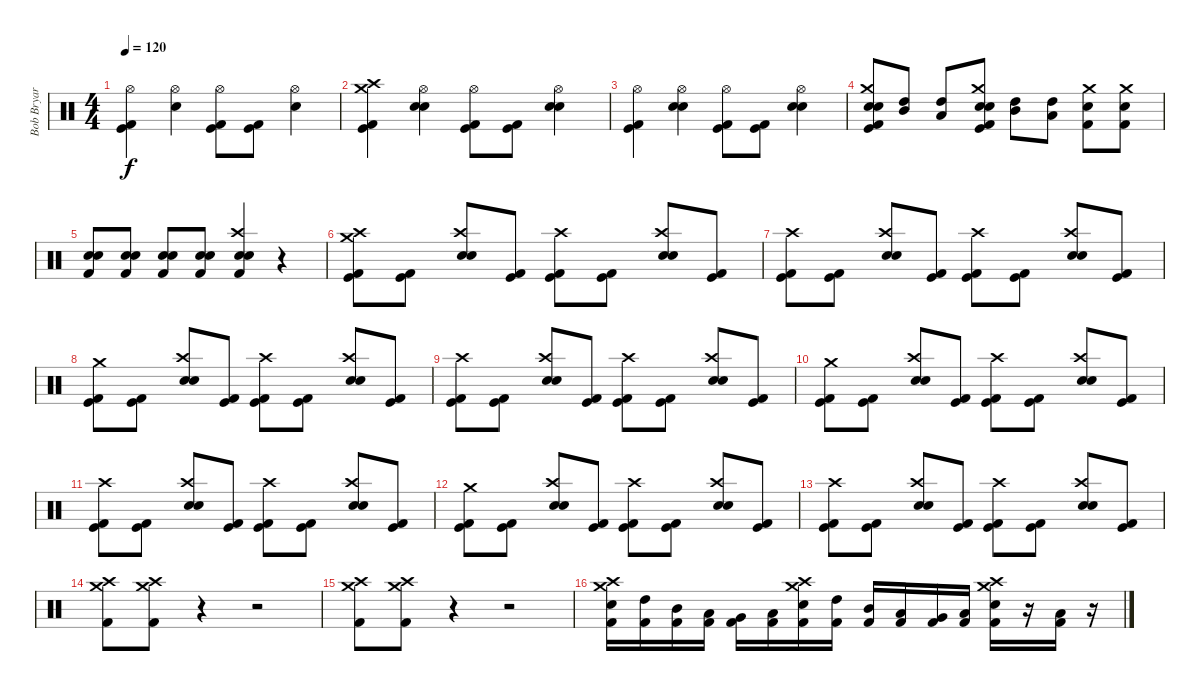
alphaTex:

\track ("Bob Bryar" "Bob Bryar") {instrument percussion}
\staff {score}
\articulation defaults
\ts (4 4)
\tempo 120
\clef neutral
\ks c
("Hi-Hat (open)" "Kick (hit)" "Kick (hit) 2").4{dy f} ("Hi-Hat (open)" "Snare (hit) 2").4 ("Hi-Hat (open)" "Kick (hit)" "Kick (hit) 2").8 ("Kick (hit)" "Kick (hit) 2").8 ("Hi-Hat (open)" "Snare (hit) 2").4 |
("Crash medium (hit)" "Crash high (hit)" "Kick (hit)" "Kick (hit) 2").4 ("Hi-Hat (open)" "Electric Snare (hit)" "Snare (hit) 2").4 ("Hi-Hat (open)" "Kick (hit)" "Kick (hit) 2").8 ("Kick (hit)" "Kick (hit) 2").8 ("Hi-Hat (open)" "Electric Snare (hit)" "Snare (hit) 2").4 |
("Hi-Hat (open)" "Kick (hit)" "Kick (hit) 2").4 ("Hi-Hat (open)" "Electric Snare (hit)" "Snare (hit) 2").4 ("Hi-Hat (open)" "Kick (hit)" "Kick (hit) 2").8 ("Kick (hit)" "Kick (hit) 2").8 ("Hi-Hat (open)" "Electric Snare (hit)" "Snare (hit) 2").4 |
("Crash medium (hit)" "Electric Snare (hit)" "Snare (hit) 2" "Kick (hit)" "Kick (hit) 2").8 ("Mid Tom (hit)" "High Tom (hit)").8 ("High Tom (hit)" "Low Tom (hit)").8 ("Crash medium (hit)" "Electric Snare (hit)" "Snare (hit) 2" "Kick (hit)" "Kick (hit) 2").8 ("Mid Tom (hit)" "High Tom (hit)").8 ("High Tom (hit)" "Low Tom (hit)").8 ("Crash medium (hit)" "Snare (hit) 2" "Kick (hit) 2").8 ("Crash medium (hit)" "Snare (hit) 2" "Kick (hit) 2").8 |
("Snare (hit) 2" "Electric Snare (hit)" "Kick (hit) 2").8 ("Snare (hit) 2" "Electric Snare (hit)" "Kick (hit) 2").8 ("Snare (hit) 2" "Electric Snare (hit)" "Kick (hit) 2").8 ("Snare (hit) 2" "Electric Snare (hit)" "Kick (hit) 2").8 ("Crash high (hit)" "Snare (hit) 2" "Electric Snare (hit)" "Kick (hit) 2").4 r.4 |
("Crash medium (hit)" "Crash high (hit)" "Kick (hit)" "Kick (hit) 2").8 ("Kick (hit)" "Kick (hit) 2").8 ("Crash high (hit)" "Electric Snare (hit)" "Snare (hit) 2").8 ("Kick (hit)" "Kick (hit) 2").8 ("Crash high (hit)" "Kick (hit)" "Kick (hit) 2").8 ("Kick (hit)" "Kick (hit) 2").8 ("Crash high (hit)" "Electric Snare (hit)" "Snare (hit) 2").8 ("Kick (hit)" "Kick (hit) 2").8 |
("Crash high (hit)" "Kick (hit)" "Kick (hit) 2").8 ("Kick (hit)" "Kick (hit) 2").8 ("Crash high (hit)" "Electric Snare (hit)" "Snare (hit) 2").8 ("Kick (hit)" "Kick (hit) 2").8 ("Crash high (hit)" "Kick (hit)" "Kick (hit) 2").8 ("Kick (hit)" "Kick (hit) 2").8 ("Crash high (hit)" "Electric Snare (hit)" "Snare (hit) 2").8 ("Kick (hit)" "Kick (hit) 2").8 |
("Crash medium (hit)" "Kick (hit)" "Kick (hit) 2").8 ("Kick (hit)" "Kick (hit) 2").8 ("Crash high (hit)" "Electric Snare (hit)" "Snare (hit) 2").8 ("Kick (hit)" "Kick (hit) 2").8 ("Crash high (hit)" "Kick (hit)" "Kick (hit) 2").8 ("Kick (hit)" "Kick (hit) 2").8 ("Crash high (hit)" "Electric Snare (hit)" "Snare (hit) 2").8 ("Kick (hit)" "Kick (hit) 2").8 |
("Crash high (hit)" "Kick (hit)" "Kick (hit) 2").8 ("Kick (hit)" "Kick (hit) 2").8 ("Crash high (hit)" "Electric Snare (hit)" "Snare (hit) 2").8 ("Kick (hit)" "Kick (hit) 2").8 ("Crash high (hit)" "Kick (hit)" "Kick (hit) 2").8 ("Kick (hit)" "Kick (hit) 2").8 ("Crash high (hit)" "Electric Snare (hit)" "Snare (hit) 2").8 ("Kick (hit)" "Kick (hit) 2").8 |
("Crash medium (hit)" "Kick (hit)" "Kick (hit) 2").8 ("Kick (hit)" "Kick (hit) 2").8 ("Crash high (hit)" "Electric Snare (hit)" "Snare (hit) 2").8 ("Kick (hit)" "Kick (hit) 2").8 ("Crash high (hit)" "Kick (hit)" "Kick (hit) 2").8 ("Kick (hit)" "Kick (hit) 2").8 ("Crash high (hit)" "Electric Snare (hit)" "Snare (hit) 2").8 ("Kick (hit)" "Kick (hit) 2").8 |
("Crash high (hit)" "Kick (hit)" "Kick (hit) 2").8 ("Kick (hit)" "Kick (hit) 2").8 ("Crash high (hit)" "Electric Snare (hit)" "Snare (hit) 2").8 ("Kick (hit)" "Kick (hit) 2").8 ("Crash high (hit)" "Kick (hit)" "Kick (hit) 2").8 ("Kick (hit)" "Kick (hit) 2").8 ("Crash high (hit)" "Electric Snare (hit)" "Snare (hit) 2").8 ("Kick (hit)" "Kick (hit) 2").8 |
("Crash medium (hit)" "Kick (hit)" "Kick (hit) 2").8 ("Kick (hit)" "Kick (hit) 2").8 ("Crash high (hit)" "Electric Snare (hit)" "Snare (hit) 2").8 ("Kick (hit)" "Kick (hit) 2").8 ("Crash high (hit)" "Kick (hit)" "Kick (hit) 2").8 ("Kick (hit)" "Kick (hit) 2").8 ("Crash high (hit)" "Electric Snare (hit)" "Snare (hit) 2").8 ("Kick (hit)" "Kick (hit) 2").8 |
("Crash high (hit)" "Kick (hit)" "Kick (hit) 2").8 ("Kick (hit)" "Kick (hit) 2").8 ("Crash high (hit)" "Electric Snare (hit)" "Snare (hit) 2").8 ("Kick (hit)" "Kick (hit) 2").8 ("Crash high (hit)" "Kick (hit)" "Kick (hit) 2").8 ("Kick (hit)" "Kick (hit) 2").8 ("Crash high (hit)" "Electric Snare (hit)" "Snare (hit) 2").8 ("Kick (hit)" "Kick (hit) 2").8 |
("Crash high (hit)" "Crash medium (hit)" "Kick (hit) 2").8 ("Crash high (hit)" "Crash medium (hit)" "Kick (hit) 2").8 r.4 r.2 |
("Crash high (hit)" "Crash medium (hit)" "Kick (hit) 2").8 ("Crash high (hit)" "Crash medium (hit)" "Kick (hit) 2").8 r.4 r.2 |
("Crash high (hit)" "Crash medium (hit)" "Snare (hit) 2" "Kick (hit) 2").16 ("High Tom (hit)" "Kick (hit) 2").16 ("Mid Tom (hit)" "Kick (hit) 2").16 ("Low Tom (hit)" "Kick (hit) 2").16 ("Very Low Tom (hit)" "Kick (hit) 2").16 ("Low Floor Tom (hit)" "Kick (hit) 2").16 ("Crash high (hit)" "Crash medium (hit)" "Snare (hit) 2" "Kick (hit) 2").16 ("High Tom (hit)" "Kick (hit) 2").16 ("Mid Tom (hit)" "Kick (hit) 2").16 ("Low Tom (hit)" "Kick (hit) 2").16 ("Very Low Tom (hit)" "Kick (hit) 2").16 ("Low Floor Tom (hit)" "Kick (hit) 2").16 ("Crash high (hit)" "Crash medium (hit)" "Snare (hit) 2" "Kick (hit) 2").16 r.16 ("Low Tom (hit)" "Kick (hit) 2").16 r.16
